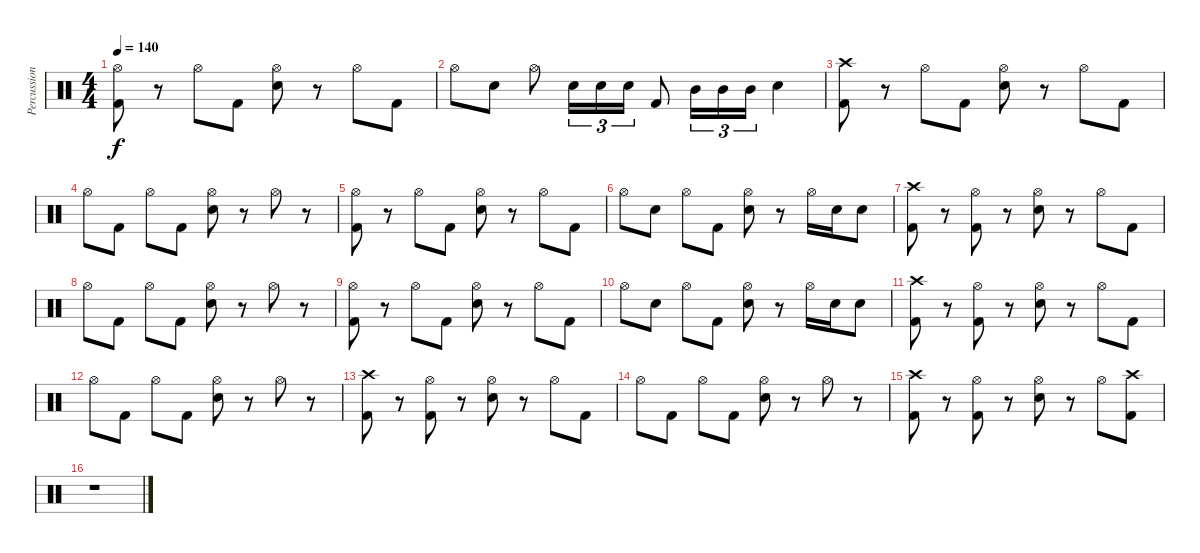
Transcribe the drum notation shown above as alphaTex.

\track ("Percussion" "Percussion") {instrument percussion}
\staff {score}
\articulation defaults
\ts (4 4)
\tempo 140
\clef neutral
\ks c
("Hi-Hat (open)" "Kick (hit) 2").8{dy f} r.8 "Hi-Hat (open)".8 "Kick (hit) 2".8 ("Hi-Hat (open)" "Snare (hit) 2").8 r.8 "Hi-Hat (open)".8 "Kick (hit) 2".8 |
"Hi-Hat (open)".8 "Snare (hit) 2".8 "Hi-Hat (open)".8 "Snare (hit) 2".16{tu (3 2)} "Snare (hit) 2".16{tu (3 2)} "Snare (hit) 2".16{tu (3 2)} "Kick (hit) 2".8 "Mid Tom (hit)".16{tu (3 2)} "Mid Tom (hit)".16{tu (3 2)} "Mid Tom (hit)".16{tu (3 2)} "Snare (hit) 2".4 |
("Crash high (hit)" "Kick (hit) 2").8 r.8 "Hi-Hat (open)".8 "Kick (hit) 2".8 ("Hi-Hat (open)" "Snare (hit) 2").8 r.8 "Hi-Hat (open)".8 "Kick (hit) 2".8 |
"Hi-Hat (open)".8 "Kick (hit) 2".8 "Hi-Hat (open)".8 "Kick (hit) 2".8 ("Hi-Hat (open)" "Snare (hit) 2").8 r.8 "Hi-Hat (open)".8 r.8 |
("Hi-Hat (open)" "Kick (hit) 2").8 r.8 "Hi-Hat (open)".8 "Kick (hit) 2".8 ("Hi-Hat (open)" "Snare (hit) 2").8 r.8 "Hi-Hat (open)".8 "Kick (hit) 2".8 |
"Hi-Hat (open)".8 "Snare (hit) 2".8 "Hi-Hat (open)".8 "Kick (hit) 2".8 ("Hi-Hat (open)" "Snare (hit) 2").8 r.8 "Hi-Hat (open)".16 "Snare (hit) 2".16 "Snare (hit) 2".8 |
("Crash high (hit)" "Kick (hit) 2").8 r.8 ("Hi-Hat (open)" "Kick (hit) 2").8 r.8 ("Hi-Hat (open)" "Snare (hit) 2").8 r.8 "Hi-Hat (open)".8 "Kick (hit) 2".8 |
"Hi-Hat (open)".8 "Kick (hit) 2".8 "Hi-Hat (open)".8 "Kick (hit) 2".8 ("Hi-Hat (open)" "Snare (hit) 2").8 r.8 "Hi-Hat (open)".8 r.8 |
("Hi-Hat (open)" "Kick (hit) 2").8 r.8 "Hi-Hat (open)".8 "Kick (hit) 2".8 ("Hi-Hat (open)" "Snare (hit) 2").8 r.8 "Hi-Hat (open)".8 "Kick (hit) 2".8 |
"Hi-Hat (open)".8 "Snare (hit) 2".8 "Hi-Hat (open)".8 "Kick (hit) 2".8 ("Hi-Hat (open)" "Snare (hit) 2").8 r.8 "Hi-Hat (open)".16 "Snare (hit) 2".16 "Snare (hit) 2".8 |
("Crash high (hit)" "Kick (hit) 2").8 r.8 ("Hi-Hat (open)" "Kick (hit) 2").8 r.8 ("Hi-Hat (open)" "Snare (hit) 2").8 r.8 "Hi-Hat (open)".8 "Kick (hit) 2".8 |
"Hi-Hat (open)".8 "Kick (hit) 2".8 "Hi-Hat (open)".8 "Kick (hit) 2".8 ("Hi-Hat (open)" "Snare (hit) 2").8 r.8 "Hi-Hat (open)".8 r.8 |
("Crash high (hit)" "Kick (hit) 2").8 r.8 ("Hi-Hat (open)" "Kick (hit) 2").8 r.8 ("Hi-Hat (open)" "Snare (hit) 2").8 r.8 "Hi-Hat (open)".8 "Kick (hit) 2".8 |
"Hi-Hat (open)".8 "Kick (hit) 2".8 "Hi-Hat (open)".8 "Kick (hit) 2".8 ("Hi-Hat (open)" "Snare (hit) 2").8 r.8 "Hi-Hat (open)".8 r.8 |
("Crash high (hit)" "Kick (hit) 2").8 r.8 ("Hi-Hat (open)" "Kick (hit) 2").8 r.8 ("Hi-Hat (open)" "Snare (hit) 2").8 r.8 "Hi-Hat (open)".8 ("Crash high (hit)" "Kick (hit) 2").8 |
r.1
